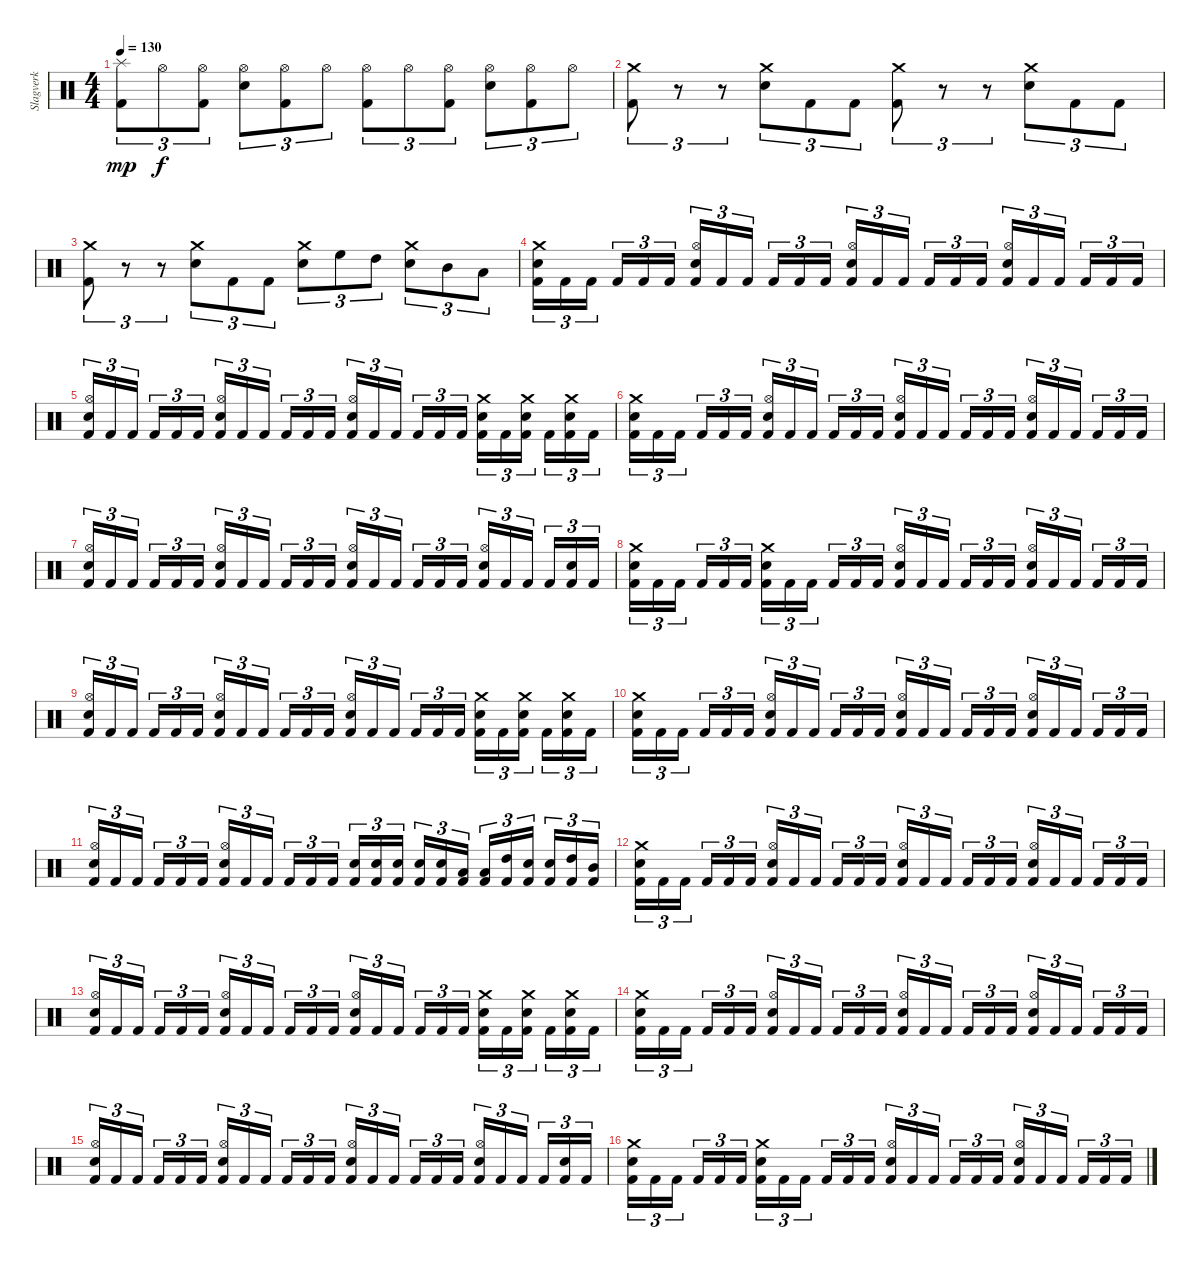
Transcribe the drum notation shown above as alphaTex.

\track ("Slagverk" "Slagverk") {instrument percussion}
\staff {score}
\articulation defaults
\ts (4 4)
\tempo 130
\clef neutral
\ks c
("Kick (hit) 2" "Splash (hit)").8{tu (3 2) dy mp} "Hi-Hat (open)".8{tu (3 2) dy f} ("Kick (hit) 2" "Hi-Hat (open)").8{tu (3 2)} ("Electric Snare (hit)" "Hi-Hat (open)").8{tu (3 2)} ("Kick (hit) 2" "Hi-Hat (open)").8{tu (3 2)} "Hi-Hat (open)".8{tu (3 2)} ("Kick (hit) 2" "Hi-Hat (open)").8{tu (3 2)} "Hi-Hat (open)".8{tu (3 2)} ("Kick (hit) 2" "Hi-Hat (open)").8{tu (3 2)} ("Electric Snare (hit)" "Hi-Hat (open)").8{tu (3 2)} ("Kick (hit) 2" "Hi-Hat (open)").8{tu (3 2)} "Hi-Hat (open)".8{tu (3 2)} |
("Kick (hit) 2" "Crash medium (hit)").8{tu (3 2)} r.8{tu (3 2)} r.8{tu (3 2)} ("Electric Snare (hit)" "Crash medium (hit)").8{tu (3 2)} "Kick (hit) 2".8{tu (3 2)} "Kick (hit) 2".8{tu (3 2)} ("Kick (hit) 2" "Crash medium (hit)").8{tu (3 2)} r.8{tu (3 2)} r.8{tu (3 2)} ("Electric Snare (hit)" "Crash medium (hit)").8{tu (3 2)} "Kick (hit) 2".8{tu (3 2)} "Kick (hit) 2".8{tu (3 2)} |
("Kick (hit) 2" "Crash medium (hit)").8{tu (3 2)} r.8{tu (3 2)} r.8{tu (3 2)} ("Electric Snare (hit)" "Crash medium (hit)").8{tu (3 2)} "Kick (hit) 2".8{tu (3 2)} "Kick (hit) 2".8{tu (3 2)} ("Electric Snare (hit)" "Crash medium (hit)").8{tu (3 2)} "High Floor Tom (hit)".8{tu (3 2)} "High Tom (hit)".8{tu (3 2)} ("Electric Snare (hit)" "Crash medium (hit)").8{tu (3 2)} "Mid Tom (hit)".8{tu (3 2)} "Low Tom (hit)".8{tu (3 2)} |
("Kick (hit) 2" "Electric Snare (hit)" "Crash medium (hit)").16{tu (3 2)} "Kick (hit) 2".16{tu (3 2)} "Kick (hit) 2".16{tu (3 2)} "Kick (hit) 2".16{tu (3 2)} "Kick (hit) 2".16{tu (3 2)} "Kick (hit) 2".16{tu (3 2)} ("Kick (hit) 2" "Electric Snare (hit)" "Hi-Hat (open)").16{tu (3 2)} "Kick (hit) 2".16{tu (3 2)} "Kick (hit) 2".16{tu (3 2)} "Kick (hit) 2".16{tu (3 2)} "Kick (hit) 2".16{tu (3 2)} "Kick (hit) 2".16{tu (3 2)} ("Kick (hit) 2" "Electric Snare (hit)" "Hi-Hat (open)").16{tu (3 2)} "Kick (hit) 2".16{tu (3 2)} "Kick (hit) 2".16{tu (3 2)} "Kick (hit) 2".16{tu (3 2)} "Kick (hit) 2".16{tu (3 2)} "Kick (hit) 2".16{tu (3 2)} ("Kick (hit) 2" "Electric Snare (hit)" "Hi-Hat (open)").16{tu (3 2)} "Kick (hit) 2".16{tu (3 2)} "Kick (hit) 2".16{tu (3 2)} "Kick (hit) 2".16{tu (3 2)} "Kick (hit) 2".16{tu (3 2)} "Kick (hit) 2".16{tu (3 2)} |
("Kick (hit) 2" "Electric Snare (hit)" "Hi-Hat (open)").16{tu (3 2)} "Kick (hit) 2".16{tu (3 2)} "Kick (hit) 2".16{tu (3 2)} "Kick (hit) 2".16{tu (3 2)} "Kick (hit) 2".16{tu (3 2)} "Kick (hit) 2".16{tu (3 2)} ("Kick (hit) 2" "Electric Snare (hit)" "Hi-Hat (open)").16{tu (3 2)} "Kick (hit) 2".16{tu (3 2)} "Kick (hit) 2".16{tu (3 2)} "Kick (hit) 2".16{tu (3 2)} "Kick (hit) 2".16{tu (3 2)} "Kick (hit) 2".16{tu (3 2)} ("Kick (hit) 2" "Electric Snare (hit)" "Hi-Hat (open)").16{tu (3 2)} "Kick (hit) 2".16{tu (3 2)} "Kick (hit) 2".16{tu (3 2)} "Kick (hit) 2".16{tu (3 2)} "Kick (hit) 2".16{tu (3 2)} "Kick (hit) 2".16{tu (3 2)} ("Kick (hit) 2" "Electric Snare (hit)" "Crash medium (hit)").16{tu (3 2)} "Kick (hit) 2".16{tu (3 2)} ("Kick (hit) 2" "Electric Snare (hit)" "Crash medium (hit)").16{tu (3 2)} "Kick (hit) 2".16{tu (3 2)} ("Kick (hit) 2" "Electric Snare (hit)" "Crash medium (hit)").16{tu (3 2)} "Kick (hit) 2".16{tu (3 2)} |
("Kick (hit) 2" "Electric Snare (hit)" "Crash medium (hit)").16{tu (3 2)} "Kick (hit) 2".16{tu (3 2)} "Kick (hit) 2".16{tu (3 2)} "Kick (hit) 2".16{tu (3 2)} "Kick (hit) 2".16{tu (3 2)} "Kick (hit) 2".16{tu (3 2)} ("Kick (hit) 2" "Electric Snare (hit)" "Hi-Hat (open)").16{tu (3 2)} "Kick (hit) 2".16{tu (3 2)} "Kick (hit) 2".16{tu (3 2)} "Kick (hit) 2".16{tu (3 2)} "Kick (hit) 2".16{tu (3 2)} "Kick (hit) 2".16{tu (3 2)} ("Kick (hit) 2" "Electric Snare (hit)" "Hi-Hat (open)").16{tu (3 2)} "Kick (hit) 2".16{tu (3 2)} "Kick (hit) 2".16{tu (3 2)} "Kick (hit) 2".16{tu (3 2)} "Kick (hit) 2".16{tu (3 2)} "Kick (hit) 2".16{tu (3 2)} ("Kick (hit) 2" "Electric Snare (hit)" "Hi-Hat (open)").16{tu (3 2)} "Kick (hit) 2".16{tu (3 2)} "Kick (hit) 2".16{tu (3 2)} "Kick (hit) 2".16{tu (3 2)} "Kick (hit) 2".16{tu (3 2)} "Kick (hit) 2".16{tu (3 2)} |
("Kick (hit) 2" "Electric Snare (hit)" "Hi-Hat (open)").16{tu (3 2)} "Kick (hit) 2".16{tu (3 2)} "Kick (hit) 2".16{tu (3 2)} "Kick (hit) 2".16{tu (3 2)} "Kick (hit) 2".16{tu (3 2)} "Kick (hit) 2".16{tu (3 2)} ("Kick (hit) 2" "Electric Snare (hit)" "Hi-Hat (open)").16{tu (3 2)} "Kick (hit) 2".16{tu (3 2)} "Kick (hit) 2".16{tu (3 2)} "Kick (hit) 2".16{tu (3 2)} "Kick (hit) 2".16{tu (3 2)} "Kick (hit) 2".16{tu (3 2)} ("Kick (hit) 2" "Electric Snare (hit)" "Hi-Hat (open)").16{tu (3 2)} "Kick (hit) 2".16{tu (3 2)} "Kick (hit) 2".16{tu (3 2)} "Kick (hit) 2".16{tu (3 2)} "Kick (hit) 2".16{tu (3 2)} "Kick (hit) 2".16{tu (3 2)} ("Kick (hit) 2" "Electric Snare (hit)" "Hi-Hat (open)").16{tu (3 2)} "Kick (hit) 2".16{tu (3 2)} "Kick (hit) 2".16{tu (3 2)} "Kick (hit) 2".16{tu (3 2)} ("Kick (hit) 2" "Electric Snare (hit)").16{tu (3 2)} "Kick (hit) 2".16{tu (3 2)} |
("Kick (hit) 2" "Electric Snare (hit)" "Crash medium (hit)").16{tu (3 2)} "Kick (hit) 2".16{tu (3 2)} "Kick (hit) 2".16{tu (3 2)} "Kick (hit) 2".16{tu (3 2)} "Kick (hit) 2".16{tu (3 2)} "Kick (hit) 2".16{tu (3 2)} ("Kick (hit) 2" "Electric Snare (hit)" "Crash medium (hit)").16{tu (3 2)} "Kick (hit) 2".16{tu (3 2)} "Kick (hit) 2".16{tu (3 2)} "Kick (hit) 2".16{tu (3 2)} "Kick (hit) 2".16{tu (3 2)} "Kick (hit) 2".16{tu (3 2)} ("Kick (hit) 2" "Electric Snare (hit)" "Hi-Hat (open)").16{tu (3 2)} "Kick (hit) 2".16{tu (3 2)} "Kick (hit) 2".16{tu (3 2)} "Kick (hit) 2".16{tu (3 2)} "Kick (hit) 2".16{tu (3 2)} "Kick (hit) 2".16{tu (3 2)} ("Kick (hit) 2" "Electric Snare (hit)" "Hi-Hat (open)").16{tu (3 2)} "Kick (hit) 2".16{tu (3 2)} "Kick (hit) 2".16{tu (3 2)} "Kick (hit) 2".16{tu (3 2)} "Kick (hit) 2".16{tu (3 2)} "Kick (hit) 2".16{tu (3 2)} |
("Kick (hit) 2" "Electric Snare (hit)" "Hi-Hat (open)").16{tu (3 2)} "Kick (hit) 2".16{tu (3 2)} "Kick (hit) 2".16{tu (3 2)} "Kick (hit) 2".16{tu (3 2)} "Kick (hit) 2".16{tu (3 2)} "Kick (hit) 2".16{tu (3 2)} ("Kick (hit) 2" "Electric Snare (hit)" "Hi-Hat (open)").16{tu (3 2)} "Kick (hit) 2".16{tu (3 2)} "Kick (hit) 2".16{tu (3 2)} "Kick (hit) 2".16{tu (3 2)} "Kick (hit) 2".16{tu (3 2)} "Kick (hit) 2".16{tu (3 2)} ("Kick (hit) 2" "Electric Snare (hit)" "Hi-Hat (open)").16{tu (3 2)} "Kick (hit) 2".16{tu (3 2)} "Kick (hit) 2".16{tu (3 2)} "Kick (hit) 2".16{tu (3 2)} "Kick (hit) 2".16{tu (3 2)} "Kick (hit) 2".16{tu (3 2)} ("Kick (hit) 2" "Electric Snare (hit)" "Crash medium (hit)").16{tu (3 2)} "Kick (hit) 2".16{tu (3 2)} ("Kick (hit) 2" "Electric Snare (hit)" "Crash medium (hit)").16{tu (3 2)} "Kick (hit) 2".16{tu (3 2)} ("Kick (hit) 2" "Electric Snare (hit)" "Crash medium (hit)").16{tu (3 2)} "Kick (hit) 2".16{tu (3 2)} |
("Kick (hit) 2" "Electric Snare (hit)" "Crash medium (hit)").16{tu (3 2)} "Kick (hit) 2".16{tu (3 2)} "Kick (hit) 2".16{tu (3 2)} "Kick (hit) 2".16{tu (3 2)} "Kick (hit) 2".16{tu (3 2)} "Kick (hit) 2".16{tu (3 2)} ("Kick (hit) 2" "Electric Snare (hit)" "Hi-Hat (open)").16{tu (3 2)} "Kick (hit) 2".16{tu (3 2)} "Kick (hit) 2".16{tu (3 2)} "Kick (hit) 2".16{tu (3 2)} "Kick (hit) 2".16{tu (3 2)} "Kick (hit) 2".16{tu (3 2)} ("Kick (hit) 2" "Electric Snare (hit)" "Hi-Hat (open)").16{tu (3 2)} "Kick (hit) 2".16{tu (3 2)} "Kick (hit) 2".16{tu (3 2)} "Kick (hit) 2".16{tu (3 2)} "Kick (hit) 2".16{tu (3 2)} "Kick (hit) 2".16{tu (3 2)} ("Kick (hit) 2" "Electric Snare (hit)" "Hi-Hat (open)").16{tu (3 2)} "Kick (hit) 2".16{tu (3 2)} "Kick (hit) 2".16{tu (3 2)} "Kick (hit) 2".16{tu (3 2)} "Kick (hit) 2".16{tu (3 2)} "Kick (hit) 2".16{tu (3 2)} |
("Kick (hit) 2" "Electric Snare (hit)" "Hi-Hat (open)").16{tu (3 2)} "Kick (hit) 2".16{tu (3 2)} "Kick (hit) 2".16{tu (3 2)} "Kick (hit) 2".16{tu (3 2)} "Kick (hit) 2".16{tu (3 2)} "Kick (hit) 2".16{tu (3 2)} ("Kick (hit) 2" "Electric Snare (hit)" "Hi-Hat (open)").16{tu (3 2)} "Kick (hit) 2".16{tu (3 2)} "Kick (hit) 2".16{tu (3 2)} "Kick (hit) 2".16{tu (3 2)} "Kick (hit) 2".16{tu (3 2)} "Kick (hit) 2".16{tu (3 2)} ("Kick (hit) 2" "Electric Snare (hit)").16{tu (3 2)} ("Kick (hit) 2" "Electric Snare (hit)").16{tu (3 2)} ("Kick (hit) 2" "Electric Snare (hit)").16{tu (3 2)} ("Kick (hit) 2" "Electric Snare (hit)").16{tu (3 2)} ("Kick (hit) 2" "Electric Snare (hit)").16{tu (3 2)} ("Kick (hit) 2" "Low Tom (hit)").16{tu (3 2)} ("Kick (hit) 2" "Low Tom (hit)").16{tu (3 2)} ("Kick (hit) 2" "High Tom (hit)").16{tu (3 2)} ("Kick (hit) 2" "Electric Snare (hit)").16{tu (3 2)} ("Kick (hit) 2" "Electric Snare (hit)").16{tu (3 2)} ("Kick (hit) 2" "High Tom (hit)").16{tu (3 2)} ("Kick (hit) 2" "Mid Tom (hit)").16{tu (3 2)} |
("Kick (hit) 2" "Electric Snare (hit)" "Crash medium (hit)").16{tu (3 2)} "Kick (hit) 2".16{tu (3 2)} "Kick (hit) 2".16{tu (3 2)} "Kick (hit) 2".16{tu (3 2)} "Kick (hit) 2".16{tu (3 2)} "Kick (hit) 2".16{tu (3 2)} ("Kick (hit) 2" "Electric Snare (hit)" "Hi-Hat (open)").16{tu (3 2)} "Kick (hit) 2".16{tu (3 2)} "Kick (hit) 2".16{tu (3 2)} "Kick (hit) 2".16{tu (3 2)} "Kick (hit) 2".16{tu (3 2)} "Kick (hit) 2".16{tu (3 2)} ("Kick (hit) 2" "Electric Snare (hit)" "Hi-Hat (open)").16{tu (3 2)} "Kick (hit) 2".16{tu (3 2)} "Kick (hit) 2".16{tu (3 2)} "Kick (hit) 2".16{tu (3 2)} "Kick (hit) 2".16{tu (3 2)} "Kick (hit) 2".16{tu (3 2)} ("Kick (hit) 2" "Electric Snare (hit)" "Hi-Hat (open)").16{tu (3 2)} "Kick (hit) 2".16{tu (3 2)} "Kick (hit) 2".16{tu (3 2)} "Kick (hit) 2".16{tu (3 2)} "Kick (hit) 2".16{tu (3 2)} "Kick (hit) 2".16{tu (3 2)} |
("Kick (hit) 2" "Electric Snare (hit)" "Hi-Hat (open)").16{tu (3 2)} "Kick (hit) 2".16{tu (3 2)} "Kick (hit) 2".16{tu (3 2)} "Kick (hit) 2".16{tu (3 2)} "Kick (hit) 2".16{tu (3 2)} "Kick (hit) 2".16{tu (3 2)} ("Kick (hit) 2" "Electric Snare (hit)" "Hi-Hat (open)").16{tu (3 2)} "Kick (hit) 2".16{tu (3 2)} "Kick (hit) 2".16{tu (3 2)} "Kick (hit) 2".16{tu (3 2)} "Kick (hit) 2".16{tu (3 2)} "Kick (hit) 2".16{tu (3 2)} ("Kick (hit) 2" "Electric Snare (hit)" "Hi-Hat (open)").16{tu (3 2)} "Kick (hit) 2".16{tu (3 2)} "Kick (hit) 2".16{tu (3 2)} "Kick (hit) 2".16{tu (3 2)} "Kick (hit) 2".16{tu (3 2)} "Kick (hit) 2".16{tu (3 2)} ("Kick (hit) 2" "Electric Snare (hit)" "Crash medium (hit)").16{tu (3 2)} "Kick (hit) 2".16{tu (3 2)} ("Kick (hit) 2" "Electric Snare (hit)" "Crash medium (hit)").16{tu (3 2)} "Kick (hit) 2".16{tu (3 2)} ("Kick (hit) 2" "Electric Snare (hit)" "Crash medium (hit)").16{tu (3 2)} "Kick (hit) 2".16{tu (3 2)} |
("Kick (hit) 2" "Electric Snare (hit)" "Crash medium (hit)").16{tu (3 2)} "Kick (hit) 2".16{tu (3 2)} "Kick (hit) 2".16{tu (3 2)} "Kick (hit) 2".16{tu (3 2)} "Kick (hit) 2".16{tu (3 2)} "Kick (hit) 2".16{tu (3 2)} ("Kick (hit) 2" "Electric Snare (hit)" "Hi-Hat (open)").16{tu (3 2)} "Kick (hit) 2".16{tu (3 2)} "Kick (hit) 2".16{tu (3 2)} "Kick (hit) 2".16{tu (3 2)} "Kick (hit) 2".16{tu (3 2)} "Kick (hit) 2".16{tu (3 2)} ("Kick (hit) 2" "Electric Snare (hit)" "Hi-Hat (open)").16{tu (3 2)} "Kick (hit) 2".16{tu (3 2)} "Kick (hit) 2".16{tu (3 2)} "Kick (hit) 2".16{tu (3 2)} "Kick (hit) 2".16{tu (3 2)} "Kick (hit) 2".16{tu (3 2)} ("Kick (hit) 2" "Electric Snare (hit)" "Hi-Hat (open)").16{tu (3 2)} "Kick (hit) 2".16{tu (3 2)} "Kick (hit) 2".16{tu (3 2)} "Kick (hit) 2".16{tu (3 2)} "Kick (hit) 2".16{tu (3 2)} "Kick (hit) 2".16{tu (3 2)} |
("Kick (hit) 2" "Electric Snare (hit)" "Hi-Hat (open)").16{tu (3 2)} "Kick (hit) 2".16{tu (3 2)} "Kick (hit) 2".16{tu (3 2)} "Kick (hit) 2".16{tu (3 2)} "Kick (hit) 2".16{tu (3 2)} "Kick (hit) 2".16{tu (3 2)} ("Kick (hit) 2" "Electric Snare (hit)" "Hi-Hat (open)").16{tu (3 2)} "Kick (hit) 2".16{tu (3 2)} "Kick (hit) 2".16{tu (3 2)} "Kick (hit) 2".16{tu (3 2)} "Kick (hit) 2".16{tu (3 2)} "Kick (hit) 2".16{tu (3 2)} ("Kick (hit) 2" "Electric Snare (hit)" "Hi-Hat (open)").16{tu (3 2)} "Kick (hit) 2".16{tu (3 2)} "Kick (hit) 2".16{tu (3 2)} "Kick (hit) 2".16{tu (3 2)} "Kick (hit) 2".16{tu (3 2)} "Kick (hit) 2".16{tu (3 2)} ("Kick (hit) 2" "Electric Snare (hit)" "Hi-Hat (open)").16{tu (3 2)} "Kick (hit) 2".16{tu (3 2)} "Kick (hit) 2".16{tu (3 2)} "Kick (hit) 2".16{tu (3 2)} ("Kick (hit) 2" "Electric Snare (hit)").16{tu (3 2)} "Kick (hit) 2".16{tu (3 2)} |
("Kick (hit) 2" "Electric Snare (hit)" "Crash medium (hit)").16{tu (3 2)} "Kick (hit) 2".16{tu (3 2)} "Kick (hit) 2".16{tu (3 2)} "Kick (hit) 2".16{tu (3 2)} "Kick (hit) 2".16{tu (3 2)} "Kick (hit) 2".16{tu (3 2)} ("Kick (hit) 2" "Electric Snare (hit)" "Crash medium (hit)").16{tu (3 2)} "Kick (hit) 2".16{tu (3 2)} "Kick (hit) 2".16{tu (3 2)} "Kick (hit) 2".16{tu (3 2)} "Kick (hit) 2".16{tu (3 2)} "Kick (hit) 2".16{tu (3 2)} ("Kick (hit) 2" "Electric Snare (hit)" "Hi-Hat (open)").16{tu (3 2)} "Kick (hit) 2".16{tu (3 2)} "Kick (hit) 2".16{tu (3 2)} "Kick (hit) 2".16{tu (3 2)} "Kick (hit) 2".16{tu (3 2)} "Kick (hit) 2".16{tu (3 2)} ("Kick (hit) 2" "Electric Snare (hit)" "Hi-Hat (open)").16{tu (3 2)} "Kick (hit) 2".16{tu (3 2)} "Kick (hit) 2".16{tu (3 2)} "Kick (hit) 2".16{tu (3 2)} "Kick (hit) 2".16{tu (3 2)} "Kick (hit) 2".16{tu (3 2)}
